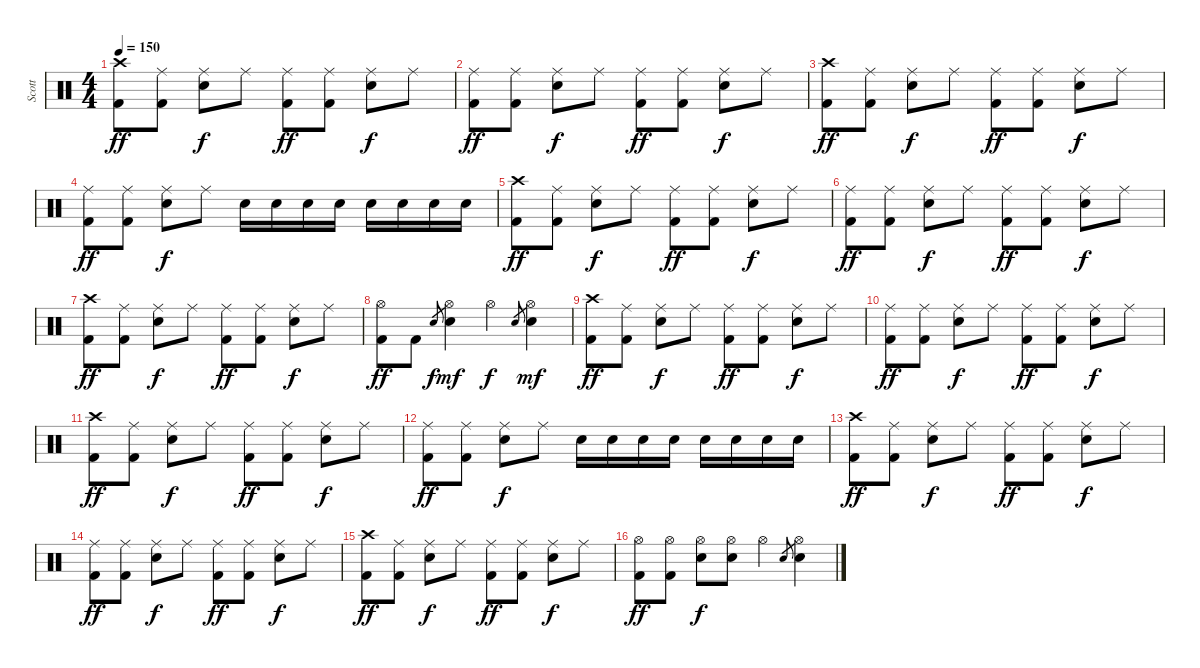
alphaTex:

\track ("Scott" "Scott") {solo instrument percussion}
\staff {score}
\articulation defaults
\ts (4 4)
\tempo 150
\clef neutral
\ks c
("Crash high (hit)" "Kick (hit) 2").8{dy ff} ("Kick (hit) 2" "Ride (middle)").8 ("Ride (middle)" "Electric Snare (hit)").8{dy f} "Ride (middle)".8 ("Ride (middle)" "Kick (hit) 2").8{dy ff} ("Kick (hit) 2" "Ride (middle)").8 ("Ride (middle)" "Electric Snare (hit)").8{dy f} "Ride (middle)".8 |
("Ride (middle)" "Kick (hit) 2").8{dy ff} ("Kick (hit) 2" "Ride (middle)").8 ("Ride (middle)" "Electric Snare (hit)").8{dy f} "Ride (middle)".8 ("Ride (middle)" "Kick (hit) 2").8{dy ff} ("Kick (hit) 2" "Ride (middle)").8 ("Ride (middle)" "Electric Snare (hit)").8{dy f} "Ride (middle)".8 |
("Crash high (hit)" "Kick (hit) 2").8{dy ff} ("Kick (hit) 2" "Ride (middle)").8 ("Ride (middle)" "Electric Snare (hit)").8{dy f} "Ride (middle)".8 ("Ride (middle)" "Kick (hit) 2").8{dy ff} ("Kick (hit) 2" "Ride (middle)").8 ("Ride (middle)" "Electric Snare (hit)").8{dy f} "Ride (middle)".8 |
("Ride (middle)" "Kick (hit) 2").8{dy ff} ("Kick (hit) 2" "Ride (middle)").8 ("Ride (middle)" "Electric Snare (hit)").8{dy f} "Ride (middle)".8 "Electric Snare (hit)".16 "Electric Snare (hit)".16 "Electric Snare (hit)".16 "Electric Snare (hit)".16 "Electric Snare (hit)".16 "Electric Snare (hit)".16 "Electric Snare (hit)".16 "Electric Snare (hit)".16 |
("Crash high (hit)" "Kick (hit) 2").8{dy ff} ("Kick (hit) 2" "Ride (middle)").8 ("Ride (middle)" "Electric Snare (hit)").8{dy f} "Ride (middle)".8 ("Ride (middle)" "Kick (hit) 2").8{dy ff} ("Kick (hit) 2" "Ride (middle)").8 ("Ride (middle)" "Electric Snare (hit)").8{dy f} "Ride (middle)".8 |
("Ride (middle)" "Kick (hit) 2").8{dy ff} ("Kick (hit) 2" "Ride (middle)").8 ("Ride (middle)" "Electric Snare (hit)").8{dy f} "Ride (middle)".8 ("Ride (middle)" "Kick (hit) 2").8{dy ff} ("Kick (hit) 2" "Ride (middle)").8 ("Ride (middle)" "Electric Snare (hit)").8{dy f} "Ride (middle)".8 |
("Crash high (hit)" "Kick (hit) 2").8{dy ff} ("Kick (hit) 2" "Ride (middle)").8 ("Ride (middle)" "Electric Snare (hit)").8{dy f} "Ride (middle)".8 ("Ride (middle)" "Kick (hit) 2").8{dy ff} ("Kick (hit) 2" "Ride (middle)").8 ("Ride (middle)" "Electric Snare (hit)").8{dy f} "Ride (middle)".8 |
("Kick (hit) 2" "Hi-Hat (open)").8{dy ff} "Kick (hit) 2".8 "Electric Snare (hit)".8{gr dy f} ("Hi-Hat (open)" "Electric Snare (hit)").4{dy mf} "Hi-Hat (open)".4{dy f} "Electric Snare (hit)".8{gr} ("Hi-Hat (open)" "Electric Snare (hit)").4{dy mf} |
("Crash high (hit)" "Kick (hit) 2").8{dy ff} ("Kick (hit) 2" "Ride (middle)").8 ("Ride (middle)" "Electric Snare (hit)").8{dy f} "Ride (middle)".8 ("Ride (middle)" "Kick (hit) 2").8{dy ff} ("Kick (hit) 2" "Ride (middle)").8 ("Ride (middle)" "Electric Snare (hit)").8{dy f} "Ride (middle)".8 |
("Ride (middle)" "Kick (hit) 2").8{dy ff} ("Kick (hit) 2" "Ride (middle)").8 ("Ride (middle)" "Electric Snare (hit)").8{dy f} "Ride (middle)".8 ("Ride (middle)" "Kick (hit) 2").8{dy ff} ("Kick (hit) 2" "Ride (middle)").8 ("Ride (middle)" "Electric Snare (hit)").8{dy f} "Ride (middle)".8 |
("Crash high (hit)" "Kick (hit) 2").8{dy ff} ("Kick (hit) 2" "Ride (middle)").8 ("Ride (middle)" "Electric Snare (hit)").8{dy f} "Ride (middle)".8 ("Ride (middle)" "Kick (hit) 2").8{dy ff} ("Kick (hit) 2" "Ride (middle)").8 ("Ride (middle)" "Electric Snare (hit)").8{dy f} "Ride (middle)".8 |
("Ride (middle)" "Kick (hit) 2").8{dy ff} ("Kick (hit) 2" "Ride (middle)").8 ("Ride (middle)" "Electric Snare (hit)").8{dy f} "Ride (middle)".8 "Electric Snare (hit)".16 "Electric Snare (hit)".16 "Electric Snare (hit)".16 "Electric Snare (hit)".16 "Electric Snare (hit)".16 "Electric Snare (hit)".16 "Electric Snare (hit)".16 "Electric Snare (hit)".16 |
("Crash high (hit)" "Kick (hit) 2").8{dy ff} ("Kick (hit) 2" "Ride (middle)").8 ("Ride (middle)" "Electric Snare (hit)").8{dy f} "Ride (middle)".8 ("Ride (middle)" "Kick (hit) 2").8{dy ff} ("Kick (hit) 2" "Ride (middle)").8 ("Ride (middle)" "Electric Snare (hit)").8{dy f} "Ride (middle)".8 |
("Ride (middle)" "Kick (hit) 2").8{dy ff} ("Kick (hit) 2" "Ride (middle)").8 ("Ride (middle)" "Electric Snare (hit)").8{dy f} "Ride (middle)".8 ("Ride (middle)" "Kick (hit) 2").8{dy ff} ("Kick (hit) 2" "Ride (middle)").8 ("Ride (middle)" "Electric Snare (hit)").8{dy f} "Ride (middle)".8 |
("Crash high (hit)" "Kick (hit) 2").8{dy ff} ("Kick (hit) 2" "Ride (middle)").8 ("Ride (middle)" "Electric Snare (hit)").8{dy f} "Ride (middle)".8 ("Ride (middle)" "Kick (hit) 2").8{dy ff} ("Kick (hit) 2" "Ride (middle)").8 ("Ride (middle)" "Electric Snare (hit)").8{dy f} "Ride (middle)".8 |
("Hi-Hat (open)" "Kick (hit) 2").8{dy ff} ("Kick (hit) 2" "Hi-Hat (open)").8 ("Hi-Hat (open)" "Electric Snare (hit)").8{dy f} ("Electric Snare (hit)" "Hi-Hat (open)").8 "Hi-Hat (open)".4 "Electric Snare (hit)".8{gr} ("Hi-Hat (open)" "Electric Snare (hit)").4
